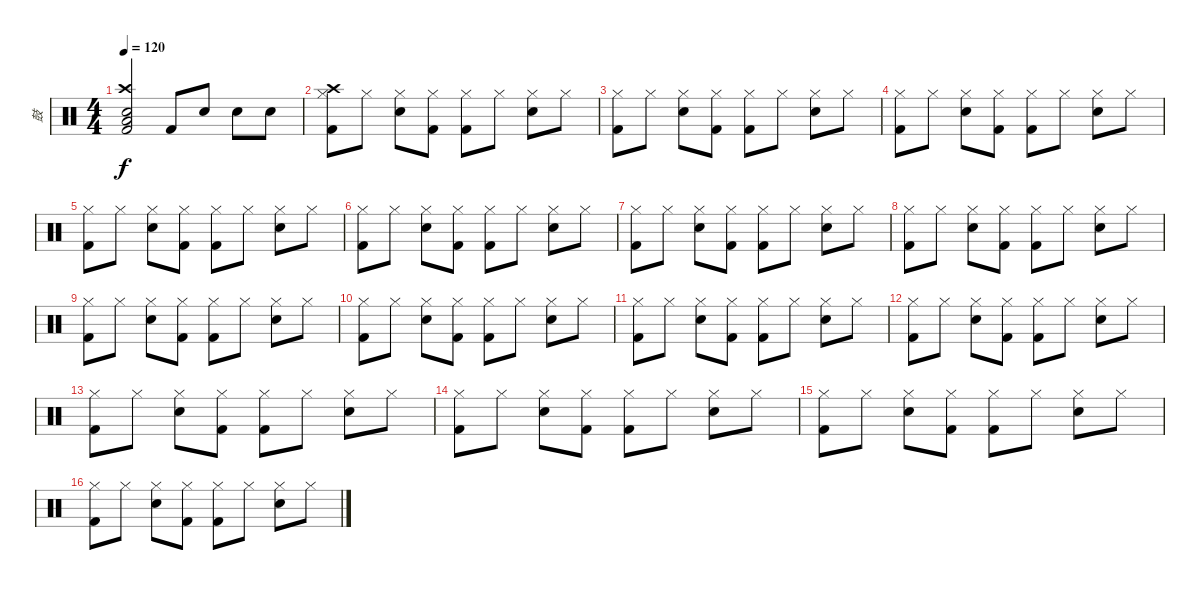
\track ("鼓" "鼓") {instrument percussion}
\staff {score}
\articulation defaults
\ts (4 4)
\tempo 120
\clef neutral
\ks c
("Snare (hit) 2" "Crash high (hit)" "Low Tom (hit)" "Kick (hit) 2").2{dy f} "Kick (hit) 2".8 "Snare (hit) 2".8 "Snare (hit) 2".8 "Snare (hit) 2".8 |
("Hi-Hat (closed)" "Crash high (hit)" "Kick (hit) 2").8 "Hi-Hat (closed)".8 ("Hi-Hat (closed)" "Snare (hit) 2").8 ("Hi-Hat (closed)" "Kick (hit) 2").8 ("Hi-Hat (closed)" "Kick (hit) 2").8 "Hi-Hat (closed)".8 ("Hi-Hat (closed)" "Snare (hit) 2").8 "Hi-Hat (closed)".8 |
("Hi-Hat (closed)" "Kick (hit) 2").8 "Hi-Hat (closed)".8 ("Hi-Hat (closed)" "Snare (hit) 2").8 ("Hi-Hat (closed)" "Kick (hit) 2").8 ("Hi-Hat (closed)" "Kick (hit) 2").8 "Hi-Hat (closed)".8 ("Hi-Hat (closed)" "Snare (hit) 2").8 "Hi-Hat (closed)".8 |
("Hi-Hat (closed)" "Kick (hit) 2").8 "Hi-Hat (closed)".8 ("Hi-Hat (closed)" "Snare (hit) 2").8 ("Hi-Hat (closed)" "Kick (hit) 2").8 ("Hi-Hat (closed)" "Kick (hit) 2").8 "Hi-Hat (closed)".8 ("Hi-Hat (closed)" "Snare (hit) 2").8 "Hi-Hat (closed)".8 |
("Hi-Hat (closed)" "Kick (hit) 2").8 "Hi-Hat (closed)".8 ("Hi-Hat (closed)" "Snare (hit) 2").8 ("Hi-Hat (closed)" "Kick (hit) 2").8 ("Hi-Hat (closed)" "Kick (hit) 2").8 "Hi-Hat (closed)".8 ("Hi-Hat (closed)" "Snare (hit) 2").8 "Hi-Hat (closed)".8 |
("Hi-Hat (closed)" "Kick (hit) 2").8 "Hi-Hat (closed)".8 ("Hi-Hat (closed)" "Snare (hit) 2").8 ("Hi-Hat (closed)" "Kick (hit) 2").8 ("Hi-Hat (closed)" "Kick (hit) 2").8 "Hi-Hat (closed)".8 ("Hi-Hat (closed)" "Snare (hit) 2").8 "Hi-Hat (closed)".8 |
("Hi-Hat (closed)" "Kick (hit) 2").8 "Hi-Hat (closed)".8 ("Hi-Hat (closed)" "Snare (hit) 2").8 ("Hi-Hat (closed)" "Kick (hit) 2").8 ("Hi-Hat (closed)" "Kick (hit) 2").8 "Hi-Hat (closed)".8 ("Hi-Hat (closed)" "Snare (hit) 2").8 "Hi-Hat (closed)".8 |
("Hi-Hat (closed)" "Kick (hit) 2").8 "Hi-Hat (closed)".8 ("Hi-Hat (closed)" "Snare (hit) 2").8 ("Hi-Hat (closed)" "Kick (hit) 2").8 ("Hi-Hat (closed)" "Kick (hit) 2").8 "Hi-Hat (closed)".8 ("Hi-Hat (closed)" "Snare (hit) 2").8 "Hi-Hat (closed)".8 |
("Hi-Hat (closed)" "Kick (hit) 2").8 "Hi-Hat (closed)".8 ("Hi-Hat (closed)" "Snare (hit) 2").8 ("Hi-Hat (closed)" "Kick (hit) 2").8 ("Hi-Hat (closed)" "Kick (hit) 2").8 "Hi-Hat (closed)".8 ("Hi-Hat (closed)" "Snare (hit) 2").8 "Hi-Hat (closed)".8 |
("Hi-Hat (closed)" "Kick (hit) 2").8 "Hi-Hat (closed)".8 ("Hi-Hat (closed)" "Snare (hit) 2").8 ("Hi-Hat (closed)" "Kick (hit) 2").8 ("Hi-Hat (closed)" "Kick (hit) 2").8 "Hi-Hat (closed)".8 ("Hi-Hat (closed)" "Snare (hit) 2").8 "Hi-Hat (closed)".8 |
("Hi-Hat (closed)" "Kick (hit) 2").8 "Hi-Hat (closed)".8 ("Hi-Hat (closed)" "Snare (hit) 2").8 ("Hi-Hat (closed)" "Kick (hit) 2").8 ("Hi-Hat (closed)" "Kick (hit) 2").8 "Hi-Hat (closed)".8 ("Hi-Hat (closed)" "Snare (hit) 2").8 "Hi-Hat (closed)".8 |
("Hi-Hat (closed)" "Kick (hit) 2").8 "Hi-Hat (closed)".8 ("Hi-Hat (closed)" "Snare (hit) 2").8 ("Hi-Hat (closed)" "Kick (hit) 2").8 ("Hi-Hat (closed)" "Kick (hit) 2").8 "Hi-Hat (closed)".8 ("Hi-Hat (closed)" "Snare (hit) 2").8 "Hi-Hat (closed)".8 |
("Hi-Hat (closed)" "Kick (hit) 2").8 "Hi-Hat (closed)".8 ("Hi-Hat (closed)" "Snare (hit) 2").8 ("Hi-Hat (closed)" "Kick (hit) 2").8 ("Hi-Hat (closed)" "Kick (hit) 2").8 "Hi-Hat (closed)".8 ("Hi-Hat (closed)" "Snare (hit) 2").8 "Hi-Hat (closed)".8 |
("Hi-Hat (closed)" "Kick (hit) 2").8 "Hi-Hat (closed)".8 ("Hi-Hat (closed)" "Snare (hit) 2").8 ("Hi-Hat (closed)" "Kick (hit) 2").8 ("Hi-Hat (closed)" "Kick (hit) 2").8 "Hi-Hat (closed)".8 ("Hi-Hat (closed)" "Snare (hit) 2").8 "Hi-Hat (closed)".8 |
("Hi-Hat (closed)" "Kick (hit) 2").8 "Hi-Hat (closed)".8 ("Hi-Hat (closed)" "Snare (hit) 2").8 ("Hi-Hat (closed)" "Kick (hit) 2").8 ("Hi-Hat (closed)" "Kick (hit) 2").8 "Hi-Hat (closed)".8 ("Hi-Hat (closed)" "Snare (hit) 2").8 "Hi-Hat (closed)".8 |
("Hi-Hat (closed)" "Kick (hit) 2").8 "Hi-Hat (closed)".8 ("Hi-Hat (closed)" "Snare (hit) 2").8 ("Hi-Hat (closed)" "Kick (hit) 2").8 ("Hi-Hat (closed)" "Kick (hit) 2").8 "Hi-Hat (closed)".8 ("Hi-Hat (closed)" "Snare (hit) 2").8 "Hi-Hat (closed)".8
